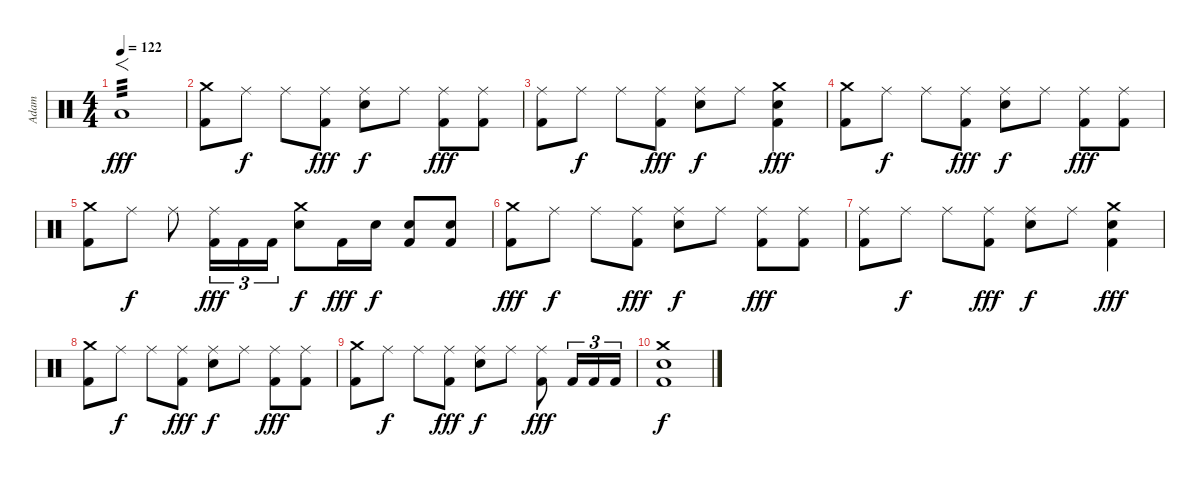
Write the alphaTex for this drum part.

\track ("Adam" "Adam") {instrument percussion}
\staff {score}
\articulation defaults
\ts (4 4)
\tempo 122
\clef neutral
\ks c "Low Tom (hit)".1{f tp 3 dy fff}
|
("Crash medium (hit)" "Kick (hit) 2").8 "Ride (middle)".8{dy f} "Ride (middle)".8 ("Ride (middle)" "Kick (hit) 2").8{dy fff} ("Ride (middle)" "Snare (hit) 2").8{dy f} "Ride (middle)".8 ("Ride (middle)" "Kick (hit) 2").8{dy fff} ("Ride (middle)" "Kick (hit) 2").8 |
("Ride (middle)" "Kick (hit) 2").8 "Ride (middle)".8{dy f} "Ride (middle)".8 ("Ride (middle)" "Kick (hit) 2").8{dy fff} ("Ride (middle)" "Snare (hit) 2").8{dy f} "Ride (middle)".8 ("Crash medium (hit)" "Snare (hit) 2" "Kick (hit) 2").4{dy fff} |
("Crash medium (hit)" "Kick (hit) 2").8 "Ride (middle)".8{dy f} "Ride (middle)".8 ("Ride (middle)" "Kick (hit) 2").8{dy fff} ("Ride (middle)" "Snare (hit) 2").8{dy f} "Ride (middle)".8 ("Ride (middle)" "Kick (hit) 2").8{dy fff} ("Ride (middle)" "Kick (hit) 2").8 |
("Crash medium (hit)" "Kick (hit) 2").8 "Ride (middle)".8{dy f} "Ride (middle)".8 ("Ride (middle)" "Kick (hit) 2").16{tu (3 2) dy fff} "Kick (hit) 2".16{tu (3 2)} "Kick (hit) 2".16{tu (3 2)} ("Crash medium (hit)" "Snare (hit) 2").8{dy f} "Kick (hit) 2".16{dy fff} "Snare (hit) 2".16{dy f} ("Snare (hit) 2" "Kick (hit) 2").8 ("Snare (hit) 2" "Kick (hit) 2").8 |
("Crash medium (hit)" "Kick (hit) 2").8{dy fff} "Ride (middle)".8{dy f} "Ride (middle)".8 ("Ride (middle)" "Kick (hit) 2").8{dy fff} ("Ride (middle)" "Snare (hit) 2").8{dy f} "Ride (middle)".8 ("Ride (middle)" "Kick (hit) 2").8{dy fff} ("Ride (middle)" "Kick (hit) 2").8 |
("Ride (middle)" "Kick (hit) 2").8 "Ride (middle)".8{dy f} "Ride (middle)".8 ("Ride (middle)" "Kick (hit) 2").8{dy fff} ("Ride (middle)" "Snare (hit) 2").8{dy f} "Ride (middle)".8 ("Crash medium (hit)" "Snare (hit) 2" "Kick (hit) 2").4{dy fff} |
("Crash medium (hit)" "Kick (hit) 2").8 "Ride (middle)".8{dy f} "Ride (middle)".8 ("Ride (middle)" "Kick (hit) 2").8{dy fff} ("Ride (middle)" "Snare (hit) 2").8{dy f} "Ride (middle)".8 ("Ride (middle)" "Kick (hit) 2").8{dy fff} ("Ride (middle)" "Kick (hit) 2").8 |
("Crash medium (hit)" "Kick (hit) 2").8 "Ride (middle)".8{dy f} "Ride (middle)".8 ("Ride (middle)" "Kick (hit) 2").8{dy fff} ("Ride (middle)" "Snare (hit) 2").8{dy f} "Ride (middle)".8 ("Ride (middle)" "Kick (hit) 2").8{dy fff} "Kick (hit) 2".16{tu (3 2)} "Kick (hit) 2".16{tu (3 2)} "Kick (hit) 2".16{tu (3 2)} |
("Crash medium (hit)" "Snare (hit) 2" "Kick (hit) 2").1{dy f}
